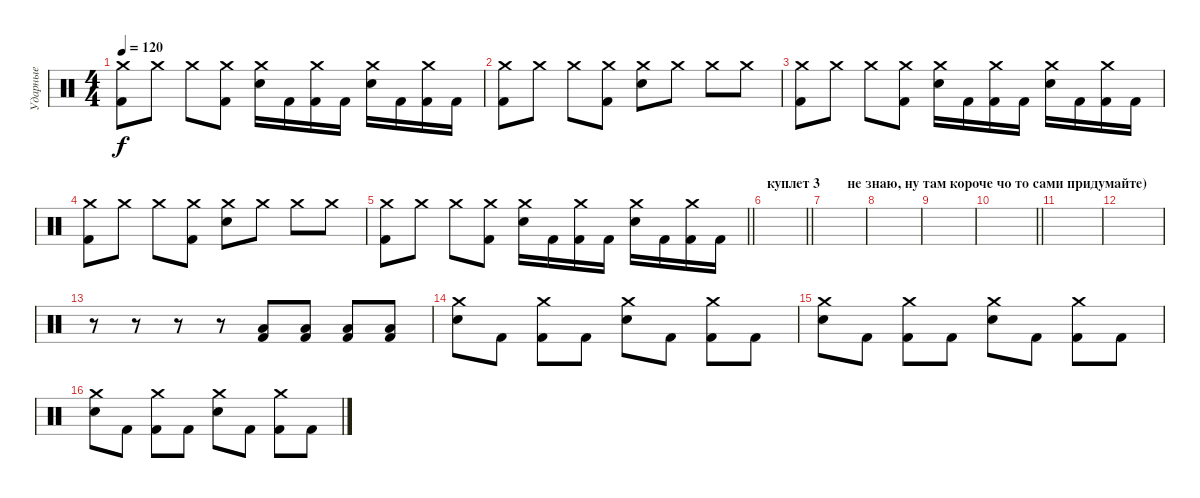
\track ("Ударные" "Ударные") {instrument percussion}
\staff {score}
\articulation defaults
\ts (4 4)
\tempo 120
\clef neutral
\ks c
("Crash medium (hit)" "Kick (hit) 2").8{dy f} "Crash medium (hit)".8 "Crash medium (hit)".8 ("Crash medium (hit)" "Kick (hit) 2").8 ("Crash medium (hit)" "Electric Snare (hit)").16 "Kick (hit) 2".16 ("Crash medium (hit)" "Kick (hit) 2").16 "Kick (hit) 2".16 ("Crash medium (hit)" "Snare (hit) 2").16 "Kick (hit) 2".16 ("Crash medium (hit)" "Kick (hit) 2").16 "Kick (hit) 2".16 |
("Crash medium (hit)" "Kick (hit) 2").8 "Crash medium (hit)".8 "Crash medium (hit)".8 ("Crash medium (hit)" "Kick (hit) 2").8 ("Crash medium (hit)" "Electric Snare (hit)").8 "Crash medium (hit)".8 "Crash medium (hit)".8 "Crash medium (hit)".8 |
("Crash medium (hit)" "Kick (hit) 2").8 "Crash medium (hit)".8 "Crash medium (hit)".8 ("Crash medium (hit)" "Kick (hit) 2").8 ("Crash medium (hit)" "Electric Snare (hit)").16 "Kick (hit) 2".16 ("Crash medium (hit)" "Kick (hit) 2").16 "Kick (hit) 2".16 ("Crash medium (hit)" "Snare (hit) 2").16 "Kick (hit) 2".16 ("Crash medium (hit)" "Kick (hit) 2").16 "Kick (hit) 2".16 |
("Crash medium (hit)" "Kick (hit) 2").8 "Crash medium (hit)".8 "Crash medium (hit)".8 ("Crash medium (hit)" "Kick (hit) 2").8 ("Crash medium (hit)" "Electric Snare (hit)").8 "Crash medium (hit)".8 "Crash medium (hit)".8 "Crash medium (hit)".8 |
\barLineRight lightlight
("Crash medium (hit)" "Kick (hit) 2").8 "Crash medium (hit)".8 "Crash medium (hit)".8 ("Crash medium (hit)" "Kick (hit) 2").8 ("Crash medium (hit)" "Electric Snare (hit)").16 "Kick (hit) 2".16 ("Crash medium (hit)" "Kick (hit) 2").16 "Kick (hit) 2".16 ("Crash medium (hit)" "Snare (hit) 2").16 "Kick (hit) 2".16 ("Crash medium (hit)" "Kick (hit) 2").16 "Kick (hit) 2".16 |
\section ("" "куплет 3")
\barLineRight lightlight
|
\section ("" "      не знаю, ну там короче чо то сами придумайте)")
|
|
|
\barLineRight lightlight
|
|
|
r.8 r.8 r.8 r.8 ("Kick (hit) 2" "Low Floor Tom (hit)").8 ("Kick (hit) 2" "Low Floor Tom (hit)").8 ("Kick (hit) 2" "Low Floor Tom (hit)").8 ("Kick (hit) 2" "Low Floor Tom (hit)").8 |
("Crash medium (hit)" "Electric Snare (hit)").8 "Kick (hit) 2".8 ("Crash medium (hit)" "Kick (hit) 2").8 "Kick (hit) 2".8 ("Crash medium (hit)" "Electric Snare (hit)").8 "Kick (hit) 2".8 ("Crash medium (hit)" "Kick (hit) 2").8 "Kick (hit) 2".8 |
("Crash medium (hit)" "Electric Snare (hit)").8 "Kick (hit) 2".8 ("Crash medium (hit)" "Kick (hit) 2").8 "Kick (hit) 2".8 ("Crash medium (hit)" "Electric Snare (hit)").8 "Kick (hit) 2".8 ("Crash medium (hit)" "Kick (hit) 2").8 "Kick (hit) 2".8 |
("Crash medium (hit)" "Electric Snare (hit)").8 "Kick (hit) 2".8 ("Crash medium (hit)" "Kick (hit) 2").8 "Kick (hit) 2".8 ("Crash medium (hit)" "Electric Snare (hit)").8 "Kick (hit) 2".8 ("Crash medium (hit)" "Kick (hit) 2").8 "Kick (hit) 2".8
